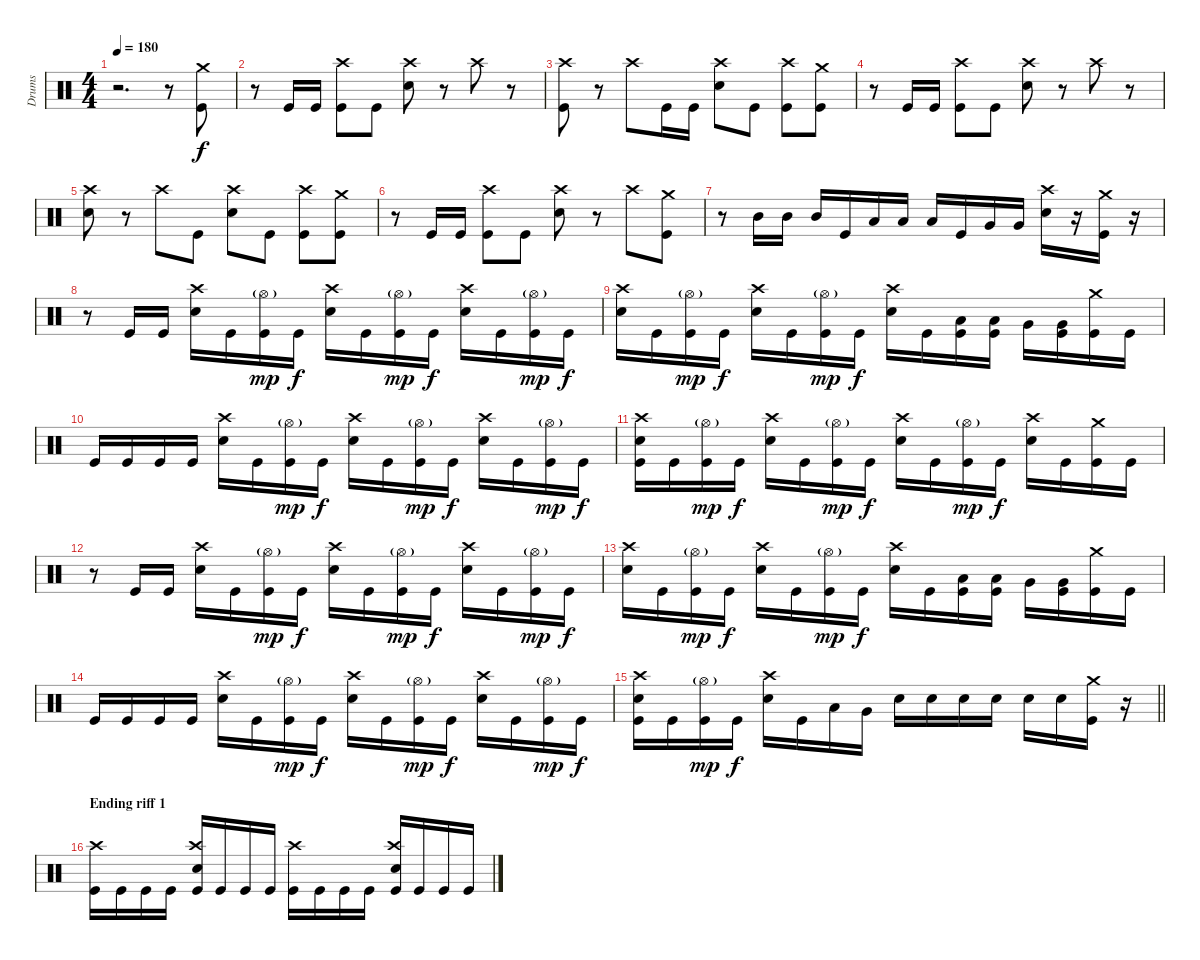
\track ("Drums" "Drums") {instrument percussion}
\staff {score}
\articulation defaults
\ts (4 4)
\tempo 180
\clef neutral
\ks c
r.2{d dy f} r.8 ("Crash medium (hit)" "Kick (hit)").8 |
r.8 "Kick (hit)".16 "Kick (hit)".16 ("Crash high (hit)" "Kick (hit)").8 "Kick (hit)".8 ("Crash high (hit)" "Electric Snare (hit)").8 r.8 "Crash high (hit)".8 r.8 |
("Crash high (hit)" "Kick (hit)").8 r.8 "Crash high (hit)".8 "Kick (hit)".16 "Kick (hit)".16 ("Crash high (hit)" "Electric Snare (hit)").8 "Kick (hit)".8 ("Crash high (hit)" "Kick (hit)").8 ("Crash medium (hit)" "Kick (hit)").8 |
r.8 "Kick (hit)".16 "Kick (hit)".16 ("Crash high (hit)" "Kick (hit)").8 "Kick (hit)".8 ("Crash high (hit)" "Electric Snare (hit)").8 r.8 "Crash high (hit)".8 r.8 |
("Crash high (hit)" "Electric Snare (hit)").8 r.8 "Crash high (hit)".8 "Kick (hit)".8 ("Crash high (hit)" "Electric Snare (hit)").8 "Kick (hit)".8 ("Crash high (hit)" "Kick (hit)").8 ("Crash medium (hit)" "Kick (hit)").8 |
r.8 "Kick (hit)".16 "Kick (hit)".16 ("Crash high (hit)" "Kick (hit)").8 "Kick (hit)".8 ("Crash high (hit)" "Electric Snare (hit)").8 r.8 "Crash high (hit)".8 ("Crash medium (hit)" "Kick (hit)").8 |
r.8 "Mid Tom (hit)".16 "Mid Tom (hit)".16 "Mid Tom (hit)".16 "Kick (hit)".16 "Low Tom (hit)".16 "Low Tom (hit)".16 "Low Tom (hit)".16 "Kick (hit)".16 "Very Low Tom (hit)".16 "Very Low Tom (hit)".16 ("Crash high (hit)" "Electric Snare (hit)").16 r.16 ("Crash medium (hit)" "Kick (hit)").16 r.16 |
r.8 "Kick (hit)".16 "Kick (hit)".16 ("Crash high (hit)" "Electric Snare (hit)").16 "Kick (hit)".16 ("Hi-Hat (open)"{g} "Kick (hit)").16{dy mp} "Kick (hit)".16{dy f} ("Crash high (hit)" "Electric Snare (hit)").16 "Kick (hit)".16 ("Hi-Hat (open)"{g} "Kick (hit)").16{dy mp} "Kick (hit)".16{dy f} ("Crash high (hit)" "Electric Snare (hit)").16 "Kick (hit)".16 ("Hi-Hat (open)"{g} "Kick (hit)").16{dy mp} "Kick (hit)".16{dy f} |
("Crash high (hit)" "Electric Snare (hit)").16 "Kick (hit)".16 ("Hi-Hat (open)"{g} "Kick (hit)").16{dy mp} "Kick (hit)".16{dy f} ("Crash high (hit)" "Electric Snare (hit)").16 "Kick (hit)".16 ("Hi-Hat (open)"{g} "Kick (hit)").16{dy mp} "Kick (hit)".16{dy f} ("Crash high (hit)" "Electric Snare (hit)").16 "Kick (hit)".16 ("Low Tom (hit)" "Kick (hit)").16 ("Low Tom (hit)" "Kick (hit)").16 "Very Low Tom (hit)".16 ("Very Low Tom (hit)" "Kick (hit)").16 ("Crash medium (hit)" "Kick (hit)").16 "Kick (hit)".16 |
"Kick (hit)".16 "Kick (hit)".16 "Kick (hit)".16 "Kick (hit)".16 ("Crash high (hit)" "Electric Snare (hit)").16 "Kick (hit)".16 ("Hi-Hat (open)"{g} "Kick (hit)").16{dy mp} "Kick (hit)".16{dy f} ("Crash high (hit)" "Electric Snare (hit)").16 "Kick (hit)".16 ("Hi-Hat (open)"{g} "Kick (hit)").16{dy mp} "Kick (hit)".16{dy f} ("Crash high (hit)" "Electric Snare (hit)").16 "Kick (hit)".16 ("Hi-Hat (open)"{g} "Kick (hit)").16{dy mp} "Kick (hit)".16{dy f} |
("Crash high (hit)" "Electric Snare (hit)" "Kick (hit)").16 "Kick (hit)".16 ("Hi-Hat (open)"{g} "Kick (hit)").16{dy mp} "Kick (hit)".16{dy f} ("Crash high (hit)" "Electric Snare (hit)").16 "Kick (hit)".16 ("Hi-Hat (open)"{g} "Kick (hit)").16{dy mp} "Kick (hit)".16{dy f} ("Crash high (hit)" "Electric Snare (hit)").16 "Kick (hit)".16 ("Hi-Hat (open)"{g} "Kick (hit)").16{dy mp} "Kick (hit)".16{dy f} ("Crash high (hit)" "Electric Snare (hit)").16 "Kick (hit)".16 ("Crash medium (hit)" "Kick (hit)").16 "Kick (hit)".16 |
r.8 "Kick (hit)".16 "Kick (hit)".16 ("Crash high (hit)" "Electric Snare (hit)").16 "Kick (hit)".16 ("Hi-Hat (open)"{g} "Kick (hit)").16{dy mp} "Kick (hit)".16{dy f} ("Crash high (hit)" "Electric Snare (hit)").16 "Kick (hit)".16 ("Hi-Hat (open)"{g} "Kick (hit)").16{dy mp} "Kick (hit)".16{dy f} ("Crash high (hit)" "Electric Snare (hit)").16 "Kick (hit)".16 ("Hi-Hat (open)"{g} "Kick (hit)").16{dy mp} "Kick (hit)".16{dy f} |
("Crash high (hit)" "Electric Snare (hit)").16 "Kick (hit)".16 ("Hi-Hat (open)"{g} "Kick (hit)").16{dy mp} "Kick (hit)".16{dy f} ("Crash high (hit)" "Electric Snare (hit)").16 "Kick (hit)".16 ("Hi-Hat (open)"{g} "Kick (hit)").16{dy mp} "Kick (hit)".16{dy f} ("Crash high (hit)" "Electric Snare (hit)").16 "Kick (hit)".16 ("Low Tom (hit)" "Kick (hit)").16 ("Low Tom (hit)" "Kick (hit)").16 "Very Low Tom (hit)".16 ("Very Low Tom (hit)" "Kick (hit)").16 ("Crash medium (hit)" "Kick (hit)").16 "Kick (hit)".16 |
"Kick (hit)".16 "Kick (hit)".16 "Kick (hit)".16 "Kick (hit)".16 ("Crash high (hit)" "Electric Snare (hit)").16 "Kick (hit)".16 ("Hi-Hat (open)"{g} "Kick (hit)").16{dy mp} "Kick (hit)".16{dy f} ("Crash high (hit)" "Electric Snare (hit)").16 "Kick (hit)".16 ("Hi-Hat (open)"{g} "Kick (hit)").16{dy mp} "Kick (hit)".16{dy f} ("Crash high (hit)" "Electric Snare (hit)").16 "Kick (hit)".16 ("Hi-Hat (open)"{g} "Kick (hit)").16{dy mp} "Kick (hit)".16{dy f} |
\barLineRight lightlight
("Crash high (hit)" "Electric Snare (hit)" "Kick (hit)").16 "Kick (hit)".16 ("Hi-Hat (open)"{g} "Kick (hit)").16{dy mp} "Kick (hit)".16{dy f} ("Crash high (hit)" "Electric Snare (hit)").16 "Kick (hit)".16 "Low Tom (hit)".16 "Very Low Tom (hit)".16 "Electric Snare (hit)".16 "Electric Snare (hit)".16 "Electric Snare (hit)".16 "Electric Snare (hit)".16 "Electric Snare (hit)".16 "Electric Snare (hit)".16 ("Crash medium (hit)" "Kick (hit)").16 r.16 |
\section ("" "Ending riff 1")
("Crash high (hit)" "Kick (hit)").16 "Kick (hit)".16 "Kick (hit)".16 "Kick (hit)".16 ("Crash high (hit)" "Electric Snare (hit)" "Kick (hit)").16 "Kick (hit)".16 "Kick (hit)".16 "Kick (hit)".16 ("Crash high (hit)" "Kick (hit)").16 "Kick (hit)".16 "Kick (hit)".16 "Kick (hit)".16 ("Crash high (hit)" "Electric Snare (hit)" "Kick (hit)").16 "Kick (hit)".16 "Kick (hit)".16 "Kick (hit)".16
